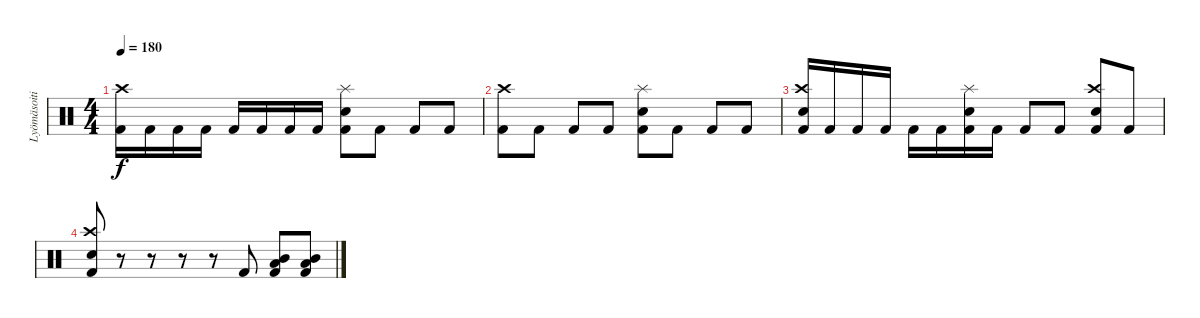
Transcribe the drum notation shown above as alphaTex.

\track ("Lyömäsoitin" "Lyömäsoiti") {instrument percussion}
\staff {score}
\articulation defaults
\ts (4 4)
\tempo 180
\clef neutral
\ks c
("Kick (hit) 2" "Crash high (hit)").16{dy f} "Kick (hit) 2".16 "Kick (hit) 2".16 "Kick (hit) 2".16 "Kick (hit) 2".16 "Kick (hit) 2".16 "Kick (hit) 2".16 "Kick (hit) 2".16 ("Kick (hit) 2" "Electric Snare (hit)" "Splash (hit)").8 "Kick (hit) 2".8 "Kick (hit) 2".8 "Kick (hit) 2".8 |
("Kick (hit) 2" "Crash high (hit)").8 "Kick (hit) 2".8 "Kick (hit) 2".8 "Kick (hit) 2".8 ("Kick (hit) 2" "Electric Snare (hit)" "Splash (hit)").8 "Kick (hit) 2".8 "Kick (hit) 2".8 "Kick (hit) 2".8 |
("Kick (hit) 2" "Electric Snare (hit)" "Crash high (hit)").16 "Kick (hit) 2".16 "Kick (hit) 2".16 "Kick (hit) 2".16 "Kick (hit) 2".16 "Kick (hit) 2".16 ("Kick (hit) 2" "Electric Snare (hit)" "Splash (hit)").16 "Kick (hit) 2".16 "Kick (hit) 2".8 "Kick (hit) 2".8 ("Kick (hit) 2" "Electric Snare (hit)" "Crash high (hit)").8 "Kick (hit) 2".8 |
("Kick (hit) 2" "Electric Snare (hit)" "Crash high (hit)").8 r.8 r.8 r.8 r.8 "Kick (hit) 2".8 ("Kick (hit) 2" "Mid Tom (hit)" "Low Tom (hit)").8 ("Kick (hit) 2" "Mid Tom (hit)" "Low Tom (hit)").8
